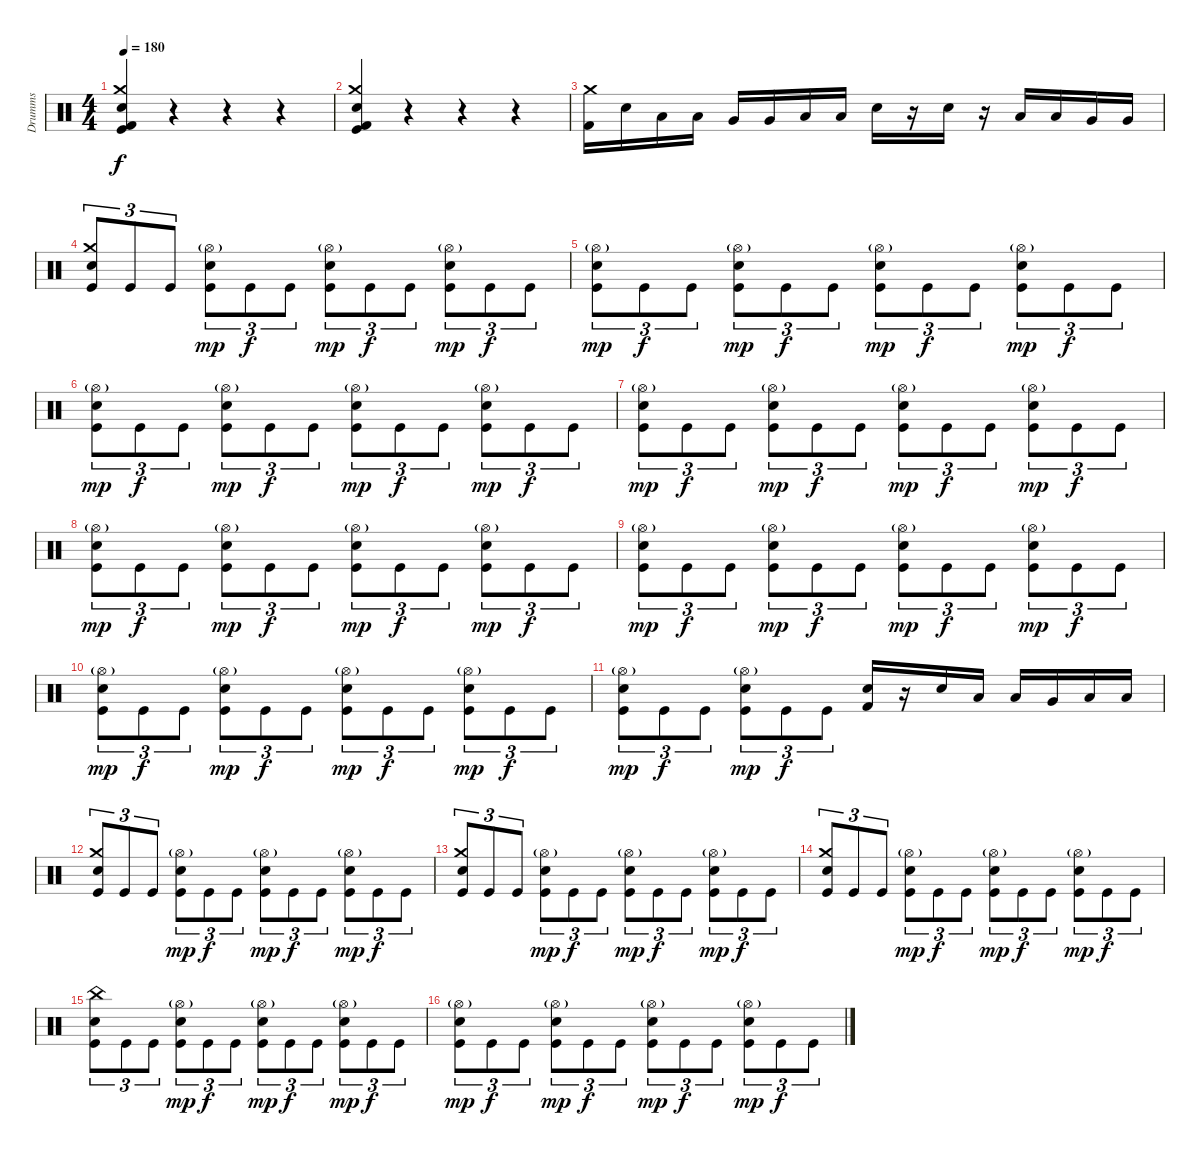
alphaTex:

\track ("Drumms" "Drumms") {instrument percussion}
\staff {score}
\articulation defaults
\ts (4 4)
\tempo 180
\clef neutral
\ks c
("Kick (hit) 2" "Kick (hit)" "Crash medium (hit)" "Snare (hit) 2").4{dy f} r.4{volume 0} r.4 r.4{volume 11} |
("Kick (hit) 2" "Kick (hit)" "Crash medium (hit)" "Snare (hit) 2").4 r.4{volume 0} r.4 r.4{volume 11} |
("Kick (hit) 2" "Crash medium (hit)").16 "Snare (hit) 2".16 "Low Tom (hit)".16 "Low Tom (hit)".16 "Very Low Tom (hit)".16 "Very Low Tom (hit)".16 "Low Tom (hit)".16 "Low Floor Tom (hit)".16 "Snare (hit) 2".16 r.16 "Snare (hit) 2".16 r.16 "Low Tom (hit)".16 "Low Tom (hit)".16 "Very Low Tom (hit)".16 "Very Low Tom (hit)".16 |
("Kick (hit)" "Snare (hit) 2" "Crash medium (hit)").8{tu (3 2)} "Kick (hit)".8{tu (3 2)} "Kick (hit)".8{tu (3 2)} ("Kick (hit)" "Snare (hit) 2" "Hi-Hat (open)"{g}).8{tu (3 2) dy mp} "Kick (hit)".8{tu (3 2) dy f} "Kick (hit)".8{tu (3 2)} ("Kick (hit)" "Snare (hit) 2" "Hi-Hat (open)"{g}).8{tu (3 2) dy mp} "Kick (hit)".8{tu (3 2) dy f} "Kick (hit)".8{tu (3 2)} ("Kick (hit)" "Snare (hit) 2" "Hi-Hat (open)"{g}).8{tu (3 2) dy mp} "Kick (hit)".8{tu (3 2) dy f} "Kick (hit)".8{tu (3 2)} |
("Kick (hit)" "Snare (hit) 2" "Hi-Hat (open)"{g}).8{tu (3 2) dy mp} "Kick (hit)".8{tu (3 2) dy f} "Kick (hit)".8{tu (3 2)} ("Kick (hit)" "Snare (hit) 2" "Hi-Hat (open)"{g}).8{tu (3 2) dy mp} "Kick (hit)".8{tu (3 2) dy f} "Kick (hit)".8{tu (3 2)} ("Kick (hit)" "Snare (hit) 2" "Hi-Hat (open)"{g}).8{tu (3 2) dy mp} "Kick (hit)".8{tu (3 2) dy f} "Kick (hit)".8{tu (3 2)} ("Kick (hit)" "Snare (hit) 2" "Hi-Hat (open)"{g}).8{tu (3 2) dy mp} "Kick (hit)".8{tu (3 2) dy f} "Kick (hit)".8{tu (3 2)} |
("Kick (hit)" "Snare (hit) 2" "Hi-Hat (open)"{g}).8{tu (3 2) dy mp} "Kick (hit)".8{tu (3 2) dy f} "Kick (hit)".8{tu (3 2)} ("Kick (hit)" "Snare (hit) 2" "Hi-Hat (open)"{g}).8{tu (3 2) dy mp} "Kick (hit)".8{tu (3 2) dy f} "Kick (hit)".8{tu (3 2)} ("Kick (hit)" "Snare (hit) 2" "Hi-Hat (open)"{g}).8{tu (3 2) dy mp} "Kick (hit)".8{tu (3 2) dy f} "Kick (hit)".8{tu (3 2)} ("Kick (hit)" "Snare (hit) 2" "Hi-Hat (open)"{g}).8{tu (3 2) dy mp} "Kick (hit)".8{tu (3 2) dy f} "Kick (hit)".8{tu (3 2)} |
("Kick (hit)" "Snare (hit) 2" "Hi-Hat (open)"{g}).8{tu (3 2) dy mp} "Kick (hit)".8{tu (3 2) dy f} "Kick (hit)".8{tu (3 2)} ("Kick (hit)" "Snare (hit) 2" "Hi-Hat (open)"{g}).8{tu (3 2) dy mp} "Kick (hit)".8{tu (3 2) dy f} "Kick (hit)".8{tu (3 2)} ("Kick (hit)" "Snare (hit) 2" "Hi-Hat (open)"{g}).8{tu (3 2) dy mp} "Kick (hit)".8{tu (3 2) dy f} "Kick (hit)".8{tu (3 2)} ("Kick (hit)" "Snare (hit) 2" "Hi-Hat (open)"{g}).8{tu (3 2) dy mp} "Kick (hit)".8{tu (3 2) dy f} "Kick (hit)".8{tu (3 2)} |
("Kick (hit)" "Snare (hit) 2" "Hi-Hat (open)"{g}).8{tu (3 2) dy mp} "Kick (hit)".8{tu (3 2) dy f} "Kick (hit)".8{tu (3 2)} ("Kick (hit)" "Snare (hit) 2" "Hi-Hat (open)"{g}).8{tu (3 2) dy mp} "Kick (hit)".8{tu (3 2) dy f} "Kick (hit)".8{tu (3 2)} ("Kick (hit)" "Snare (hit) 2" "Hi-Hat (open)"{g}).8{tu (3 2) dy mp} "Kick (hit)".8{tu (3 2) dy f} "Kick (hit)".8{tu (3 2)} ("Kick (hit)" "Snare (hit) 2" "Hi-Hat (open)"{g}).8{tu (3 2) dy mp} "Kick (hit)".8{tu (3 2) dy f} "Kick (hit)".8{tu (3 2)} |
("Kick (hit)" "Snare (hit) 2" "Hi-Hat (open)"{g}).8{tu (3 2) dy mp} "Kick (hit)".8{tu (3 2) dy f} "Kick (hit)".8{tu (3 2)} ("Kick (hit)" "Snare (hit) 2" "Hi-Hat (open)"{g}).8{tu (3 2) dy mp} "Kick (hit)".8{tu (3 2) dy f} "Kick (hit)".8{tu (3 2)} ("Kick (hit)" "Snare (hit) 2" "Hi-Hat (open)"{g}).8{tu (3 2) dy mp} "Kick (hit)".8{tu (3 2) dy f} "Kick (hit)".8{tu (3 2)} ("Kick (hit)" "Snare (hit) 2" "Hi-Hat (open)"{g}).8{tu (3 2) dy mp} "Kick (hit)".8{tu (3 2) dy f} "Kick (hit)".8{tu (3 2)} |
("Kick (hit)" "Snare (hit) 2" "Hi-Hat (open)"{g}).8{tu (3 2) dy mp} "Kick (hit)".8{tu (3 2) dy f} "Kick (hit)".8{tu (3 2)} ("Kick (hit)" "Snare (hit) 2" "Hi-Hat (open)"{g}).8{tu (3 2) dy mp} "Kick (hit)".8{tu (3 2) dy f} "Kick (hit)".8{tu (3 2)} ("Kick (hit)" "Snare (hit) 2" "Hi-Hat (open)"{g}).8{tu (3 2) dy mp} "Kick (hit)".8{tu (3 2) dy f} "Kick (hit)".8{tu (3 2)} ("Kick (hit)" "Snare (hit) 2" "Hi-Hat (open)"{g}).8{tu (3 2) dy mp} "Kick (hit)".8{tu (3 2) dy f} "Kick (hit)".8{tu (3 2)} |
("Kick (hit)" "Snare (hit) 2" "Hi-Hat (open)"{g}).8{tu (3 2) dy mp} "Kick (hit)".8{tu (3 2) dy f} "Kick (hit)".8{tu (3 2)} ("Kick (hit)" "Snare (hit) 2" "Hi-Hat (open)"{g}).8{tu (3 2) dy mp} "Kick (hit)".8{tu (3 2) dy f} "Kick (hit)".8{tu (3 2)} ("Snare (hit) 2" "Kick (hit) 2").16 r.16 "Snare (hit) 2".16 "Low Tom (hit)".16 "Low Tom (hit)".16 "Very Low Tom (hit)".16 "Low Floor Tom (hit)".16 "Low Floor Tom (hit)".16 |
("Kick (hit)" "Snare (hit) 2" "Crash medium (hit)").8{tu (3 2)} "Kick (hit)".8{tu (3 2)} "Kick (hit)".8{tu (3 2)} ("Kick (hit)" "Snare (hit) 2" "Hi-Hat (open)"{g}).8{tu (3 2) dy mp} "Kick (hit)".8{tu (3 2) dy f} "Kick (hit)".8{tu (3 2)} ("Kick (hit)" "Snare (hit) 2" "Hi-Hat (open)"{g}).8{tu (3 2) dy mp} "Kick (hit)".8{tu (3 2) dy f} "Kick (hit)".8{tu (3 2)} ("Kick (hit)" "Snare (hit) 2" "Hi-Hat (open)"{g}).8{tu (3 2) dy mp} "Kick (hit)".8{tu (3 2) dy f} "Kick (hit)".8{tu (3 2)} |
("Kick (hit)" "Snare (hit) 2" "Crash medium (hit)").8{tu (3 2)} "Kick (hit)".8{tu (3 2)} "Kick (hit)".8{tu (3 2)} ("Kick (hit)" "Snare (hit) 2" "Hi-Hat (open)"{g}).8{tu (3 2) dy mp} "Kick (hit)".8{tu (3 2) dy f} "Kick (hit)".8{tu (3 2)} ("Kick (hit)" "Snare (hit) 2" "Hi-Hat (open)"{g}).8{tu (3 2) dy mp} "Kick (hit)".8{tu (3 2) dy f} "Kick (hit)".8{tu (3 2)} ("Kick (hit)" "Snare (hit) 2" "Hi-Hat (open)"{g}).8{tu (3 2) dy mp} "Kick (hit)".8{tu (3 2) dy f} "Kick (hit)".8{tu (3 2)} |
("Kick (hit)" "Snare (hit) 2" "Crash medium (hit)").8{tu (3 2)} "Kick (hit)".8{tu (3 2)} "Kick (hit)".8{tu (3 2)} ("Kick (hit)" "Snare (hit) 2" "Hi-Hat (open)"{g}).8{tu (3 2) dy mp} "Kick (hit)".8{tu (3 2) dy f} "Kick (hit)".8{tu (3 2)} ("Kick (hit)" "Snare (hit) 2" "Hi-Hat (open)"{g}).8{tu (3 2) dy mp} "Kick (hit)".8{tu (3 2) dy f} "Kick (hit)".8{tu (3 2)} ("Kick (hit)" "Snare (hit) 2" "Hi-Hat (open)"{g}).8{tu (3 2) dy mp} "Kick (hit)".8{tu (3 2) dy f} "Kick (hit)".8{tu (3 2)} |
("Kick (hit)" "Snare (hit) 2" "China (hit)").8{tu (3 2)} "Kick (hit)".8{tu (3 2)} "Kick (hit)".8{tu (3 2)} ("Kick (hit)" "Snare (hit) 2" "Hi-Hat (open)"{g}).8{tu (3 2) dy mp} "Kick (hit)".8{tu (3 2) dy f} "Kick (hit)".8{tu (3 2)} ("Kick (hit)" "Snare (hit) 2" "Hi-Hat (open)"{g}).8{tu (3 2) dy mp} "Kick (hit)".8{tu (3 2) dy f} "Kick (hit)".8{tu (3 2)} ("Kick (hit)" "Snare (hit) 2" "Hi-Hat (open)"{g}).8{tu (3 2) dy mp} "Kick (hit)".8{tu (3 2) dy f} "Kick (hit)".8{tu (3 2)} |
("Kick (hit)" "Snare (hit) 2" "Hi-Hat (open)"{g}).8{tu (3 2) dy mp} "Kick (hit)".8{tu (3 2) dy f} "Kick (hit)".8{tu (3 2)} ("Kick (hit)" "Snare (hit) 2" "Hi-Hat (open)"{g}).8{tu (3 2) dy mp} "Kick (hit)".8{tu (3 2) dy f} "Kick (hit)".8{tu (3 2)} ("Kick (hit)" "Snare (hit) 2" "Hi-Hat (open)"{g}).8{tu (3 2) dy mp} "Kick (hit)".8{tu (3 2) dy f} "Kick (hit)".8{tu (3 2)} ("Kick (hit)" "Snare (hit) 2" "Hi-Hat (open)"{g}).8{tu (3 2) dy mp} "Kick (hit)".8{tu (3 2) dy f} "Kick (hit)".8{tu (3 2)}
